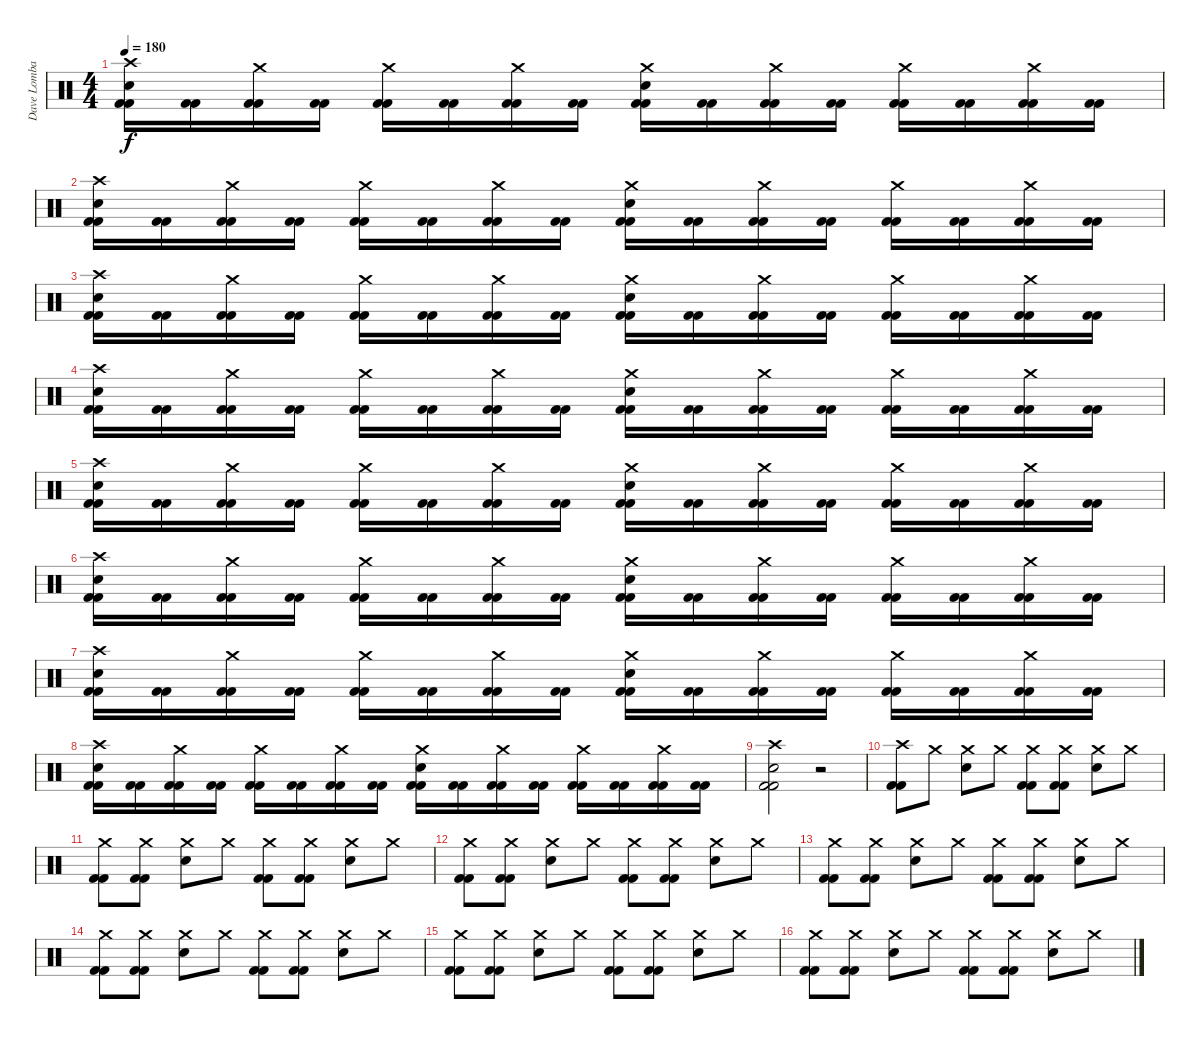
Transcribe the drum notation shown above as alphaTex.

\track ("Dave Lombardo" "Dave Lomba") {instrument percussion}
\staff {score}
\articulation defaults
\ts (4 4)
\tempo 180
\clef neutral
\ks c
("Crash high (hit)" "Electric Snare (hit)" "Kick (hit) 2" "Kick (hit) 2").16{dy f} ("Kick (hit) 2" "Kick (hit) 2").16 ("Crash medium (hit)" "Kick (hit) 2" "Kick (hit) 2").16 ("Kick (hit) 2" "Kick (hit) 2").16 ("Crash medium (hit)" "Kick (hit) 2" "Kick (hit) 2").16 ("Kick (hit) 2" "Kick (hit) 2").16 ("Crash medium (hit)" "Kick (hit) 2" "Kick (hit) 2").16 ("Kick (hit) 2" "Kick (hit) 2").16 ("Crash medium (hit)" "Electric Snare (hit)" "Kick (hit) 2" "Kick (hit) 2").16 ("Kick (hit) 2" "Kick (hit) 2").16 ("Crash medium (hit)" "Kick (hit) 2" "Kick (hit) 2").16 ("Kick (hit) 2" "Kick (hit) 2").16 ("Crash medium (hit)" "Kick (hit) 2" "Kick (hit) 2").16 ("Kick (hit) 2" "Kick (hit) 2").16 ("Crash medium (hit)" "Kick (hit) 2" "Kick (hit) 2").16 ("Kick (hit) 2" "Kick (hit) 2").16 |
("Crash high (hit)" "Electric Snare (hit)" "Kick (hit) 2" "Kick (hit) 2").16 ("Kick (hit) 2" "Kick (hit) 2").16 ("Crash medium (hit)" "Kick (hit) 2" "Kick (hit) 2").16 ("Kick (hit) 2" "Kick (hit) 2").16 ("Crash medium (hit)" "Kick (hit) 2" "Kick (hit) 2").16 ("Kick (hit) 2" "Kick (hit) 2").16 ("Crash medium (hit)" "Kick (hit) 2" "Kick (hit) 2").16 ("Kick (hit) 2" "Kick (hit) 2").16 ("Crash medium (hit)" "Electric Snare (hit)" "Kick (hit) 2" "Kick (hit) 2").16 ("Kick (hit) 2" "Kick (hit) 2").16 ("Crash medium (hit)" "Kick (hit) 2" "Kick (hit) 2").16 ("Kick (hit) 2" "Kick (hit) 2").16 ("Crash medium (hit)" "Kick (hit) 2" "Kick (hit) 2").16 ("Kick (hit) 2" "Kick (hit) 2").16 ("Crash medium (hit)" "Kick (hit) 2" "Kick (hit) 2").16 ("Kick (hit) 2" "Kick (hit) 2").16 |
("Crash high (hit)" "Electric Snare (hit)" "Kick (hit) 2" "Kick (hit) 2").16 ("Kick (hit) 2" "Kick (hit) 2").16 ("Crash medium (hit)" "Kick (hit) 2" "Kick (hit) 2").16 ("Kick (hit) 2" "Kick (hit) 2").16 ("Crash medium (hit)" "Kick (hit) 2" "Kick (hit) 2").16 ("Kick (hit) 2" "Kick (hit) 2").16 ("Crash medium (hit)" "Kick (hit) 2" "Kick (hit) 2").16 ("Kick (hit) 2" "Kick (hit) 2").16 ("Crash medium (hit)" "Electric Snare (hit)" "Kick (hit) 2" "Kick (hit) 2").16 ("Kick (hit) 2" "Kick (hit) 2").16 ("Crash medium (hit)" "Kick (hit) 2" "Kick (hit) 2").16 ("Kick (hit) 2" "Kick (hit) 2").16 ("Crash medium (hit)" "Kick (hit) 2" "Kick (hit) 2").16 ("Kick (hit) 2" "Kick (hit) 2").16 ("Crash medium (hit)" "Kick (hit) 2" "Kick (hit) 2").16 ("Kick (hit) 2" "Kick (hit) 2").16 |
("Crash high (hit)" "Electric Snare (hit)" "Kick (hit) 2" "Kick (hit) 2").16 ("Kick (hit) 2" "Kick (hit) 2").16 ("Crash medium (hit)" "Kick (hit) 2" "Kick (hit) 2").16 ("Kick (hit) 2" "Kick (hit) 2").16 ("Crash medium (hit)" "Kick (hit) 2" "Kick (hit) 2").16 ("Kick (hit) 2" "Kick (hit) 2").16 ("Crash medium (hit)" "Kick (hit) 2" "Kick (hit) 2").16 ("Kick (hit) 2" "Kick (hit) 2").16 ("Crash medium (hit)" "Electric Snare (hit)" "Kick (hit) 2" "Kick (hit) 2").16 ("Kick (hit) 2" "Kick (hit) 2").16 ("Crash medium (hit)" "Kick (hit) 2" "Kick (hit) 2").16 ("Kick (hit) 2" "Kick (hit) 2").16 ("Crash medium (hit)" "Kick (hit) 2" "Kick (hit) 2").16 ("Kick (hit) 2" "Kick (hit) 2").16 ("Crash medium (hit)" "Kick (hit) 2" "Kick (hit) 2").16 ("Kick (hit) 2" "Kick (hit) 2").16 |
("Crash high (hit)" "Electric Snare (hit)" "Kick (hit) 2" "Kick (hit) 2").16 ("Kick (hit) 2" "Kick (hit) 2").16 ("Crash medium (hit)" "Kick (hit) 2" "Kick (hit) 2").16 ("Kick (hit) 2" "Kick (hit) 2").16 ("Crash medium (hit)" "Kick (hit) 2" "Kick (hit) 2").16 ("Kick (hit) 2" "Kick (hit) 2").16 ("Crash medium (hit)" "Kick (hit) 2" "Kick (hit) 2").16 ("Kick (hit) 2" "Kick (hit) 2").16 ("Crash medium (hit)" "Electric Snare (hit)" "Kick (hit) 2" "Kick (hit) 2").16 ("Kick (hit) 2" "Kick (hit) 2").16 ("Crash medium (hit)" "Kick (hit) 2" "Kick (hit) 2").16 ("Kick (hit) 2" "Kick (hit) 2").16 ("Crash medium (hit)" "Kick (hit) 2" "Kick (hit) 2").16 ("Kick (hit) 2" "Kick (hit) 2").16 ("Crash medium (hit)" "Kick (hit) 2" "Kick (hit) 2").16 ("Kick (hit) 2" "Kick (hit) 2").16 |
("Crash high (hit)" "Electric Snare (hit)" "Kick (hit) 2" "Kick (hit) 2").16 ("Kick (hit) 2" "Kick (hit) 2").16 ("Crash medium (hit)" "Kick (hit) 2" "Kick (hit) 2").16 ("Kick (hit) 2" "Kick (hit) 2").16 ("Crash medium (hit)" "Kick (hit) 2" "Kick (hit) 2").16 ("Kick (hit) 2" "Kick (hit) 2").16 ("Crash medium (hit)" "Kick (hit) 2" "Kick (hit) 2").16 ("Kick (hit) 2" "Kick (hit) 2").16 ("Crash medium (hit)" "Electric Snare (hit)" "Kick (hit) 2" "Kick (hit) 2").16 ("Kick (hit) 2" "Kick (hit) 2").16 ("Crash medium (hit)" "Kick (hit) 2" "Kick (hit) 2").16 ("Kick (hit) 2" "Kick (hit) 2").16 ("Crash medium (hit)" "Kick (hit) 2" "Kick (hit) 2").16 ("Kick (hit) 2" "Kick (hit) 2").16 ("Crash medium (hit)" "Kick (hit) 2" "Kick (hit) 2").16 ("Kick (hit) 2" "Kick (hit) 2").16 |
("Crash high (hit)" "Electric Snare (hit)" "Kick (hit) 2" "Kick (hit) 2").16 ("Kick (hit) 2" "Kick (hit) 2").16 ("Crash medium (hit)" "Kick (hit) 2" "Kick (hit) 2").16 ("Kick (hit) 2" "Kick (hit) 2").16 ("Crash medium (hit)" "Kick (hit) 2" "Kick (hit) 2").16 ("Kick (hit) 2" "Kick (hit) 2").16 ("Crash medium (hit)" "Kick (hit) 2" "Kick (hit) 2").16 ("Kick (hit) 2" "Kick (hit) 2").16 ("Crash medium (hit)" "Electric Snare (hit)" "Kick (hit) 2" "Kick (hit) 2").16 ("Kick (hit) 2" "Kick (hit) 2").16 ("Crash medium (hit)" "Kick (hit) 2" "Kick (hit) 2").16 ("Kick (hit) 2" "Kick (hit) 2").16 ("Crash medium (hit)" "Kick (hit) 2" "Kick (hit) 2").16 ("Kick (hit) 2" "Kick (hit) 2").16 ("Crash medium (hit)" "Kick (hit) 2" "Kick (hit) 2").16 ("Kick (hit) 2" "Kick (hit) 2").16 |
("Crash high (hit)" "Electric Snare (hit)" "Kick (hit) 2" "Kick (hit) 2").16 ("Kick (hit) 2" "Kick (hit) 2").16 ("Crash medium (hit)" "Kick (hit) 2" "Kick (hit) 2").16 ("Kick (hit) 2" "Kick (hit) 2").16 ("Crash medium (hit)" "Kick (hit) 2" "Kick (hit) 2").16 ("Kick (hit) 2" "Kick (hit) 2").16 ("Crash medium (hit)" "Kick (hit) 2" "Kick (hit) 2").16 ("Kick (hit) 2" "Kick (hit) 2").16 ("Crash medium (hit)" "Electric Snare (hit)" "Kick (hit) 2" "Kick (hit) 2").16 ("Kick (hit) 2" "Kick (hit) 2").16 ("Crash medium (hit)" "Kick (hit) 2" "Kick (hit) 2").16 ("Kick (hit) 2" "Kick (hit) 2").16 ("Crash medium (hit)" "Kick (hit) 2" "Kick (hit) 2").16 ("Kick (hit) 2" "Kick (hit) 2").16 ("Crash medium (hit)" "Kick (hit) 2" "Kick (hit) 2").16 ("Kick (hit) 2" "Kick (hit) 2").16 |
("Crash high (hit)" "Electric Snare (hit)" "Kick (hit) 2" "Kick (hit) 2").2 r.2 |
("Crash high (hit)" "Kick (hit) 2" "Kick (hit) 2").8 "Crash medium (hit)".8 ("Crash medium (hit)" "Electric Snare (hit)").8 "Crash medium (hit)".8 ("Crash medium (hit)" "Kick (hit) 2" "Kick (hit) 2").8 ("Crash medium (hit)" "Kick (hit) 2" "Kick (hit) 2").8 ("Crash medium (hit)" "Electric Snare (hit)").8 "Crash medium (hit)".8 |
("Crash medium (hit)" "Kick (hit) 2" "Kick (hit) 2").8 ("Crash medium (hit)" "Kick (hit) 2" "Kick (hit) 2").8 ("Crash medium (hit)" "Electric Snare (hit)").8 "Crash medium (hit)".8 ("Crash medium (hit)" "Kick (hit) 2" "Kick (hit) 2").8 ("Crash medium (hit)" "Kick (hit) 2" "Kick (hit) 2").8 ("Crash medium (hit)" "Electric Snare (hit)").8 "Crash medium (hit)".8 |
("Crash medium (hit)" "Kick (hit) 2" "Kick (hit) 2").8 ("Crash medium (hit)" "Kick (hit) 2" "Kick (hit) 2").8 ("Crash medium (hit)" "Electric Snare (hit)").8 "Crash medium (hit)".8 ("Crash medium (hit)" "Kick (hit) 2" "Kick (hit) 2").8 ("Crash medium (hit)" "Kick (hit) 2" "Kick (hit) 2").8 ("Crash medium (hit)" "Electric Snare (hit)").8 "Crash medium (hit)".8 |
("Crash medium (hit)" "Kick (hit) 2" "Kick (hit) 2").8 ("Crash medium (hit)" "Kick (hit) 2" "Kick (hit) 2").8 ("Crash medium (hit)" "Electric Snare (hit)").8 "Crash medium (hit)".8 ("Crash medium (hit)" "Kick (hit) 2" "Kick (hit) 2").8 ("Crash medium (hit)" "Kick (hit) 2" "Kick (hit) 2").8 ("Crash medium (hit)" "Electric Snare (hit)").8 "Crash medium (hit)".8 |
("Crash medium (hit)" "Kick (hit) 2" "Kick (hit) 2").8 ("Crash medium (hit)" "Kick (hit) 2" "Kick (hit) 2").8 ("Crash medium (hit)" "Electric Snare (hit)").8 "Crash medium (hit)".8 ("Crash medium (hit)" "Kick (hit) 2" "Kick (hit) 2").8 ("Crash medium (hit)" "Kick (hit) 2" "Kick (hit) 2").8 ("Crash medium (hit)" "Electric Snare (hit)").8 "Crash medium (hit)".8 |
("Crash medium (hit)" "Kick (hit) 2" "Kick (hit) 2").8 ("Crash medium (hit)" "Kick (hit) 2" "Kick (hit) 2").8 ("Crash medium (hit)" "Electric Snare (hit)").8 "Crash medium (hit)".8 ("Crash medium (hit)" "Kick (hit) 2" "Kick (hit) 2").8 ("Crash medium (hit)" "Kick (hit) 2" "Kick (hit) 2").8 ("Crash medium (hit)" "Electric Snare (hit)").8 "Crash medium (hit)".8 |
("Crash medium (hit)" "Kick (hit) 2" "Kick (hit) 2").8 ("Crash medium (hit)" "Kick (hit) 2" "Kick (hit) 2").8 ("Crash medium (hit)" "Electric Snare (hit)").8 "Crash medium (hit)".8 ("Crash medium (hit)" "Kick (hit) 2" "Kick (hit) 2").8 ("Crash medium (hit)" "Kick (hit) 2" "Kick (hit) 2").8 ("Crash medium (hit)" "Electric Snare (hit)").8 "Crash medium (hit)".8
